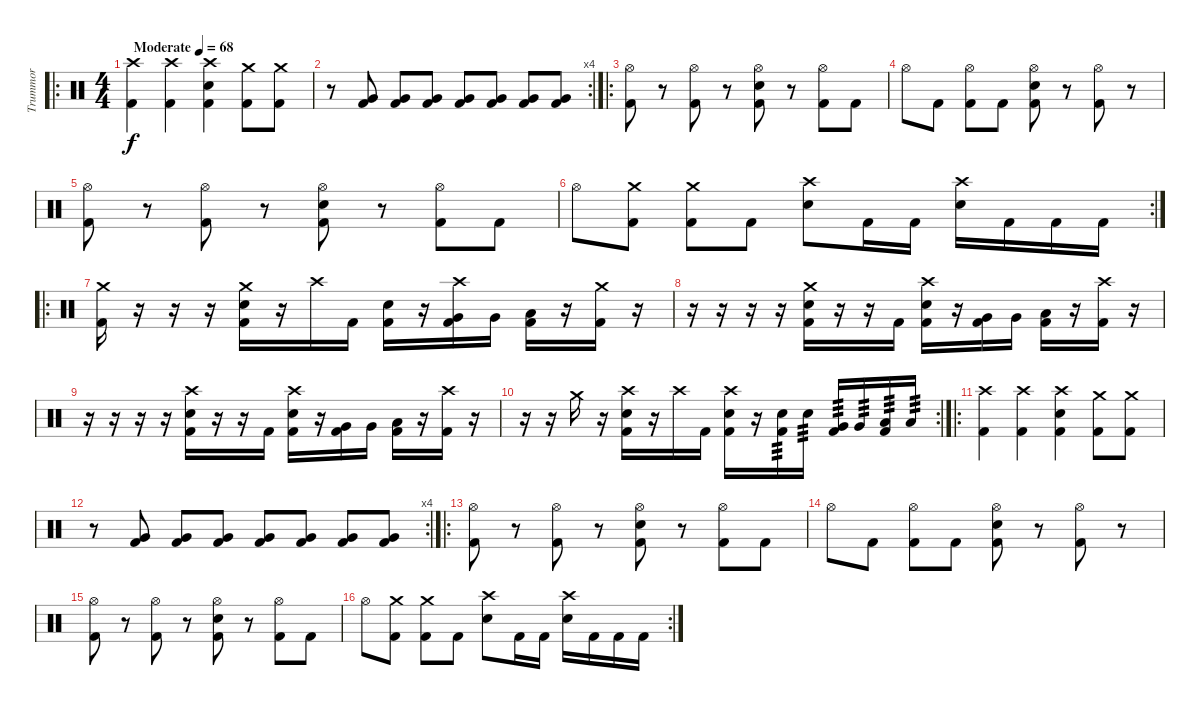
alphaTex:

\track ("Trummor" "Trummor") {instrument percussion}
\staff {score}
\articulation defaults
\ro
\ts (4 4)
\tempo (68 "Moderate")
\clef neutral
\ks c
("Crash high (hit)" "Kick (hit) 2").4{dy f} ("Crash high (hit)" "Kick (hit) 2").4 ("Crash high (hit)" "Snare (hit) 2" "Kick (hit) 2").4 ("Crash medium (hit)" "Kick (hit) 2").8 ("Crash medium (hit)" "Kick (hit) 2").8 |
\rc 4
r.8 ("Very Low Tom (hit)" "Kick (hit) 2").8 ("Very Low Tom (hit)" "Kick (hit) 2").8 ("Very Low Tom (hit)" "Kick (hit) 2").8 ("Very Low Tom (hit)" "Kick (hit) 2").8 ("Very Low Tom (hit)" "Kick (hit) 2").8 ("Very Low Tom (hit)" "Kick (hit) 2").8 ("Very Low Tom (hit)" "Kick (hit) 2").8 |
\ro
("Hi-Hat (open)" "Kick (hit) 2").8 r.8 ("Hi-Hat (open)" "Kick (hit) 2").8 r.8 ("Hi-Hat (open)" "Snare (hit) 2" "Kick (hit) 2").8 r.8 ("Hi-Hat (open)" "Kick (hit) 2").8 "Kick (hit) 2".8 |
"Hi-Hat (open)".8 "Kick (hit) 2".8 ("Hi-Hat (open)" "Kick (hit) 2").8 "Kick (hit) 2".8 ("Hi-Hat (open)" "Snare (hit) 2" "Kick (hit) 2").8 r.8 ("Hi-Hat (open)" "Kick (hit) 2").8 r.8 |
("Hi-Hat (open)" "Kick (hit) 2").8 r.8 ("Hi-Hat (open)" "Kick (hit) 2").8 r.8 ("Hi-Hat (open)" "Snare (hit) 2" "Kick (hit) 2").8 r.8 ("Hi-Hat (open)" "Kick (hit) 2").8 "Kick (hit) 2".8 |
\rc 2 "Hi-Hat (open)".8
("Crash medium (hit)" "Kick (hit) 2").8 ("Crash medium (hit)" "Kick (hit) 2").8 "Kick (hit) 2".8 ("Crash high (hit)" "Snare (hit) 2").8 "Kick (hit) 2".16 "Kick (hit) 2".16 ("Crash high (hit)" "Snare (hit) 2").16 "Kick (hit) 2".16 "Kick (hit) 2".16 "Kick (hit) 2".16 |
\ro
("Crash medium (hit)" "Kick (hit) 2").16 r.16 r.16 r.16 ("Crash medium (hit)" "Snare (hit) 2" "Kick (hit) 2").16 r.16 "Crash high (hit)".16 "Kick (hit) 2".16 ("Snare (hit) 2" "Kick (hit) 2").16 r.16 ("Crash high (hit)" "Very Low Tom (hit)" "Kick (hit) 2").16 "Very Low Tom (hit)".16 ("Low Floor Tom (hit)" "Kick (hit) 2").16 r.16 ("Crash medium (hit)" "Kick (hit) 2").16 r.16 |
r.16 r.16 r.16 r.16 ("Crash medium (hit)" "Snare (hit) 2" "Kick (hit) 2").16 r.16 r.16 "Kick (hit) 2".16 ("Crash high (hit)" "Snare (hit) 2" "Kick (hit) 2").16 r.16 ("Very Low Tom (hit)" "Kick (hit) 2").16 "Very Low Tom (hit)".16 ("Low Floor Tom (hit)" "Kick (hit) 2").16 r.16 ("Crash high (hit)" "Kick (hit) 2").16 r.16 |
r.16 r.16 r.16 r.16 ("Crash high (hit)" "Snare (hit) 2" "Kick (hit) 2").16 r.16 r.16 "Kick (hit) 2".16 ("Crash high (hit)" "Snare (hit) 2" "Kick (hit) 2").16 r.16 ("Very Low Tom (hit)" "Kick (hit) 2").16 "Very Low Tom (hit)".16 ("Low Floor Tom (hit)" "Kick (hit) 2").16 r.16 ("Crash high (hit)" "Kick (hit) 2").16 r.16 |
\rc 2
r.16 r.16 "Crash medium (hit)".16 r.16 ("Crash high (hit)" "Snare (hit) 2" "Kick (hit) 2").16 r.16 "Crash high (hit)".16 "Kick (hit) 2".16 ("Crash high (hit)" "Snare (hit) 2" "Kick (hit) 2").16 r.16 ("Snare (hit) 2" "Kick (hit) 2").16{tp 3} "Snare (hit) 2".16{tp 3} ("Very Low Tom (hit)" "Kick (hit) 2").16{tp 3} "Very Low Tom (hit)".16{tp 3} ("Low Floor Tom (hit)" "Kick (hit) 2").16{tp 3} "Low Floor Tom (hit)".16{tp 3} |
\ro
("Crash high (hit)" "Kick (hit) 2").4 ("Crash high (hit)" "Kick (hit) 2").4 ("Crash high (hit)" "Snare (hit) 2" "Kick (hit) 2").4 ("Crash medium (hit)" "Kick (hit) 2").8 ("Crash medium (hit)" "Kick (hit) 2").8 |
\rc 4
r.8 ("Very Low Tom (hit)" "Kick (hit) 2").8 ("Very Low Tom (hit)" "Kick (hit) 2").8 ("Very Low Tom (hit)" "Kick (hit) 2").8 ("Very Low Tom (hit)" "Kick (hit) 2").8 ("Very Low Tom (hit)" "Kick (hit) 2").8 ("Very Low Tom (hit)" "Kick (hit) 2").8 ("Very Low Tom (hit)" "Kick (hit) 2").8 |
\ro
("Hi-Hat (open)" "Kick (hit) 2").8 r.8 ("Hi-Hat (open)" "Kick (hit) 2").8 r.8 ("Hi-Hat (open)" "Snare (hit) 2" "Kick (hit) 2").8 r.8 ("Hi-Hat (open)" "Kick (hit) 2").8 "Kick (hit) 2".8 |
"Hi-Hat (open)".8 "Kick (hit) 2".8 ("Hi-Hat (open)" "Kick (hit) 2").8 "Kick (hit) 2".8 ("Hi-Hat (open)" "Snare (hit) 2" "Kick (hit) 2").8 r.8 ("Hi-Hat (open)" "Kick (hit) 2").8 r.8 |
("Hi-Hat (open)" "Kick (hit) 2").8 r.8 ("Hi-Hat (open)" "Kick (hit) 2").8 r.8 ("Hi-Hat (open)" "Snare (hit) 2" "Kick (hit) 2").8 r.8 ("Hi-Hat (open)" "Kick (hit) 2").8 "Kick (hit) 2".8 |
\rc 2 "Hi-Hat (open)".8
("Crash medium (hit)" "Kick (hit) 2").8 ("Crash medium (hit)" "Kick (hit) 2").8 "Kick (hit) 2".8 ("Crash high (hit)" "Snare (hit) 2").8 "Kick (hit) 2".16 "Kick (hit) 2".16 ("Crash high (hit)" "Snare (hit) 2").16 "Kick (hit) 2".16 "Kick (hit) 2".16 "Kick (hit) 2".16
